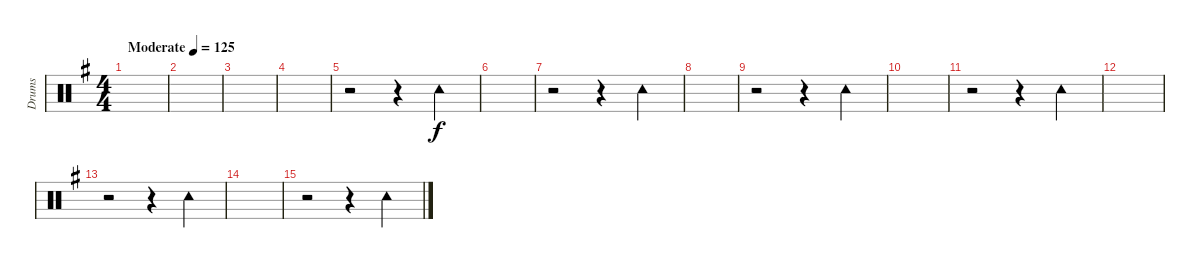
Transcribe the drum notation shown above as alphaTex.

\track ("Drums" "Drums") {instrument percussion}
\staff {score}
\articulation defaults
\ts (4 4)
\tempo (125 "Moderate")
\clef neutral
\ks g
|
|
|
|
r.2 r.4 "Tambourine (hit)".4 |
|
r.2 r.4 "Tambourine (hit)".4 |
|
r.2 r.4 "Tambourine (hit)".4 |
|
r.2 r.4 "Tambourine (hit)".4 |
|
r.2 r.4 "Tambourine (hit)".4 |
|
r.2 r.4 "Tambourine (hit)".4
